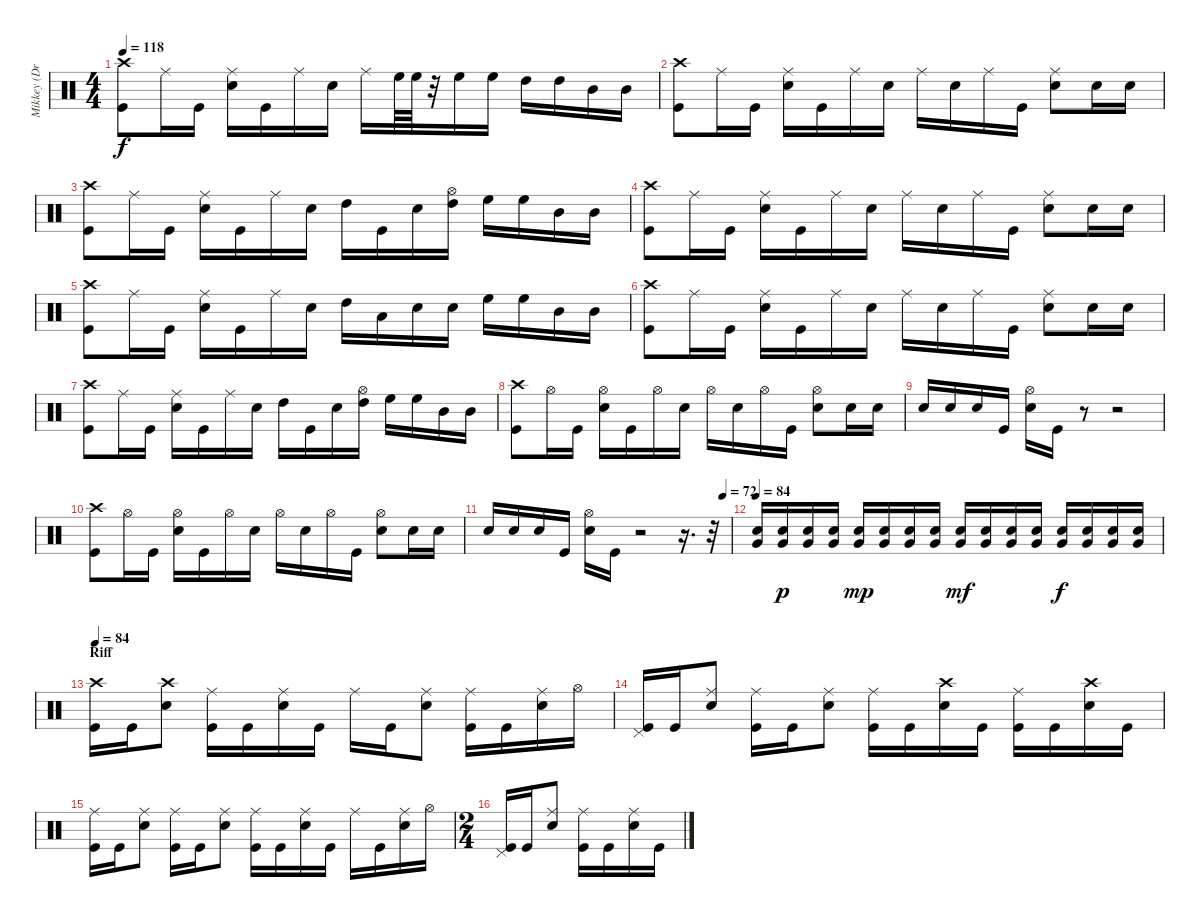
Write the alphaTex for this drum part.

\track ("Mikkey (Drums)" "Mikkey (Dr") {instrument percussion}
\staff {score}
\articulation defaults
\ts (4 4)
\tempo 118
\clef neutral
\ks c
("Crash high (hit)" "Kick (hit)").8{dy f} "Ride (middle)".16 "Kick (hit)".16 ("Ride (middle)" "Electric Snare (hit)").16 "Kick (hit)".16 "Ride (middle)".16 "Electric Snare (hit)".16 "Ride (middle)".16 "High Floor Tom (hit)".64 "High Floor Tom (hit)".64 r.32 "High Floor Tom (hit)".16 "High Floor Tom (hit)".16 "High Tom (hit)".16 "High Tom (hit)".16 "Mid Tom (hit)".16 "Mid Tom (hit)".16 |
("Crash high (hit)" "Kick (hit)").8 "Ride (middle)".16 "Kick (hit)".16 ("Ride (middle)" "Electric Snare (hit)").16 "Kick (hit)".16 "Ride (middle)".16 "Electric Snare (hit)".16 "Ride (middle)".16 "Electric Snare (hit)".16 "Ride (middle)".16 "Kick (hit)".16 ("Ride (middle)" "Electric Snare (hit)").8 "Electric Snare (hit)".16 "Electric Snare (hit)".16 |
("Crash high (hit)" "Kick (hit)").8 "Ride (middle)".16 "Kick (hit)".16 ("Ride (middle)" "Electric Snare (hit)").16 "Kick (hit)".16 "Ride (middle)".16 "Electric Snare (hit)".16 "High Tom (hit)".16 "Kick (hit)".16 "Electric Snare (hit)".16 ("Hi-Hat (open)" "High Tom (hit)").16 "High Floor Tom (hit)".16 "High Floor Tom (hit)".16 "Mid Tom (hit)".16 "Mid Tom (hit)".16 |
("Crash high (hit)" "Kick (hit)").8 "Ride (middle)".16 "Kick (hit)".16 ("Ride (middle)" "Electric Snare (hit)").16 "Kick (hit)".16 "Ride (middle)".16 "Electric Snare (hit)".16 "Ride (middle)".16 "Electric Snare (hit)".16 "Ride (middle)".16 "Kick (hit)".16 ("Ride (middle)" "Electric Snare (hit)").8 "Electric Snare (hit)".16 "Electric Snare (hit)".16 |
("Crash high (hit)" "Kick (hit)").8 "Ride (middle)".16 "Kick (hit)".16 ("Ride (middle)" "Electric Snare (hit)").16 "Kick (hit)".16 "Ride (middle)".16 "Electric Snare (hit)".16 "High Tom (hit)".16 "Low Tom (hit)".16 "Electric Snare (hit)".16 "Electric Snare (hit)".16 "High Floor Tom (hit)".16 "High Floor Tom (hit)".16 "Mid Tom (hit)".16 "Mid Tom (hit)".16 |
("Crash high (hit)" "Kick (hit)").8 "Ride (middle)".16 "Kick (hit)".16 ("Ride (middle)" "Electric Snare (hit)").16 "Kick (hit)".16 "Ride (middle)".16 "Electric Snare (hit)".16 "Ride (middle)".16 "Electric Snare (hit)".16 "Ride (middle)".16 "Kick (hit)".16 ("Ride (middle)" "Electric Snare (hit)").8 "Electric Snare (hit)".16 "Electric Snare (hit)".16 |
("Crash high (hit)" "Kick (hit)").8 "Ride (middle)".16 "Kick (hit)".16 ("Ride (middle)" "Electric Snare (hit)").16 "Kick (hit)".16 "Ride (middle)".16 "Electric Snare (hit)".16 "High Tom (hit)".16 "Kick (hit)".16 "Electric Snare (hit)".16 ("Hi-Hat (open)" "High Tom (hit)").16 "High Floor Tom (hit)".16 "High Floor Tom (hit)".16 "Mid Tom (hit)".16 "Mid Tom (hit)".16 |
("Crash high (hit)" "Kick (hit)").8 "Hi-Hat (open)".16 "Kick (hit)".16 ("Hi-Hat (open)" "Electric Snare (hit)").16 "Kick (hit)".16 "Hi-Hat (open)".16 "Electric Snare (hit)".16 "Hi-Hat (open)".16 "Electric Snare (hit)".16 "Hi-Hat (open)".16 "Kick (hit)".16 ("Hi-Hat (open)" "Electric Snare (hit)").8 "Electric Snare (hit)".16 "Electric Snare (hit)".16 |
"Electric Snare (hit)".16 "Electric Snare (hit)".16 "Electric Snare (hit)".16 "Kick (hit)".16 ("Hi-Hat (open)" "Electric Snare (hit)").16 "Kick (hit)".16 r.8 r.2 |
("Crash high (hit)" "Kick (hit)").8 "Hi-Hat (open)".16 "Kick (hit)".16 ("Hi-Hat (open)" "Electric Snare (hit)").16 "Kick (hit)".16 "Hi-Hat (open)".16 "Electric Snare (hit)".16 "Hi-Hat (open)".16 "Electric Snare (hit)".16 "Hi-Hat (open)".16 "Kick (hit)".16 ("Hi-Hat (open)" "Electric Snare (hit)").8 "Electric Snare (hit)".16 "Electric Snare (hit)".16 |
\tempo (72 0.96875)
"Electric Snare (hit)".16 "Electric Snare (hit)".16 "Electric Snare (hit)".16 "Kick (hit)".16 ("Hi-Hat (open)" "Electric Snare (hit)").16 "Kick (hit)".16 r.2 r.16{d} r.32 |
\tempo 84
("Electric Snare (hit)" "Very Low Tom (hit)").16 ("Electric Snare (hit)" "Very Low Tom (hit)").16{dy p} ("Electric Snare (hit)" "Very Low Tom (hit)").16 ("Electric Snare (hit)" "Very Low Tom (hit)").16 ("Electric Snare (hit)" "Very Low Tom (hit)").16{dy mp} ("Electric Snare (hit)" "Very Low Tom (hit)").16 ("Electric Snare (hit)" "Very Low Tom (hit)").16 ("Electric Snare (hit)" "Very Low Tom (hit)").16 ("Electric Snare (hit)" "Very Low Tom (hit)").16{dy mf} ("Electric Snare (hit)" "Very Low Tom (hit)").16 ("Electric Snare (hit)" "Very Low Tom (hit)").16 ("Electric Snare (hit)" "Very Low Tom (hit)").16 ("Electric Snare (hit)" "Very Low Tom (hit)").16{dy f} ("Electric Snare (hit)" "Very Low Tom (hit)").16 ("Electric Snare (hit)" "Very Low Tom (hit)").16 ("Electric Snare (hit)" "Very Low Tom (hit)").16 |
\section ("" "Riff")
\tempo 84
("Crash high (hit)" "Kick (hit)").16 "Kick (hit)".16 ("Crash high (hit)" "Electric Snare (hit)").8 ("Ride (middle)" "Kick (hit)").16 "Kick (hit)".16 ("Ride (middle)" "Electric Snare (hit)").16 "Kick (hit)".16 "Ride (middle)".16 "Kick (hit)".16 ("Ride (middle)" "Electric Snare (hit)").8 ("Ride (middle)" "Kick (hit)").16 "Kick (hit)".16 ("Ride (middle)" "Electric Snare (hit)").16 "Hi-Hat (open)".16 |
("Pedal Hi-Hat (hit)" "Kick (hit)").16 "Kick (hit)".16 ("Ride (middle)" "Electric Snare (hit)").8 ("Ride (middle)" "Kick (hit)").16 "Kick (hit)".16 ("Ride (middle)" "Electric Snare (hit)").8 ("Ride (middle)" "Kick (hit)").16 "Kick (hit)".16 ("Crash high (hit)" "Electric Snare (hit)").16 "Kick (hit)".16 ("Ride (middle)" "Kick (hit)").16 "Kick (hit)".16 ("Crash high (hit)" "Electric Snare (hit)").16 "Kick (hit)".16 |
("Ride (middle)" "Kick (hit)").16 "Kick (hit)".16 ("Ride (middle)" "Electric Snare (hit)").8 ("Ride (middle)" "Kick (hit)").16 "Kick (hit)".16 ("Ride (middle)" "Electric Snare (hit)").8 ("Ride (middle)" "Kick (hit)").16 "Kick (hit)".16 ("Ride (middle)" "Electric Snare (hit)").16 "Kick (hit)".16 "Ride (middle)".16 "Kick (hit)".16 ("Ride (middle)" "Electric Snare (hit)").16 "Hi-Hat (open)".16 |
\ts (2 4)
("Pedal Hi-Hat (hit)" "Kick (hit)").16 "Kick (hit)".16 ("Ride (middle)" "Electric Snare (hit)").8 ("Ride (middle)" "Kick (hit)").16 "Kick (hit)".16 ("Ride (middle)" "Electric Snare (hit)").16 "Kick (hit)".16
